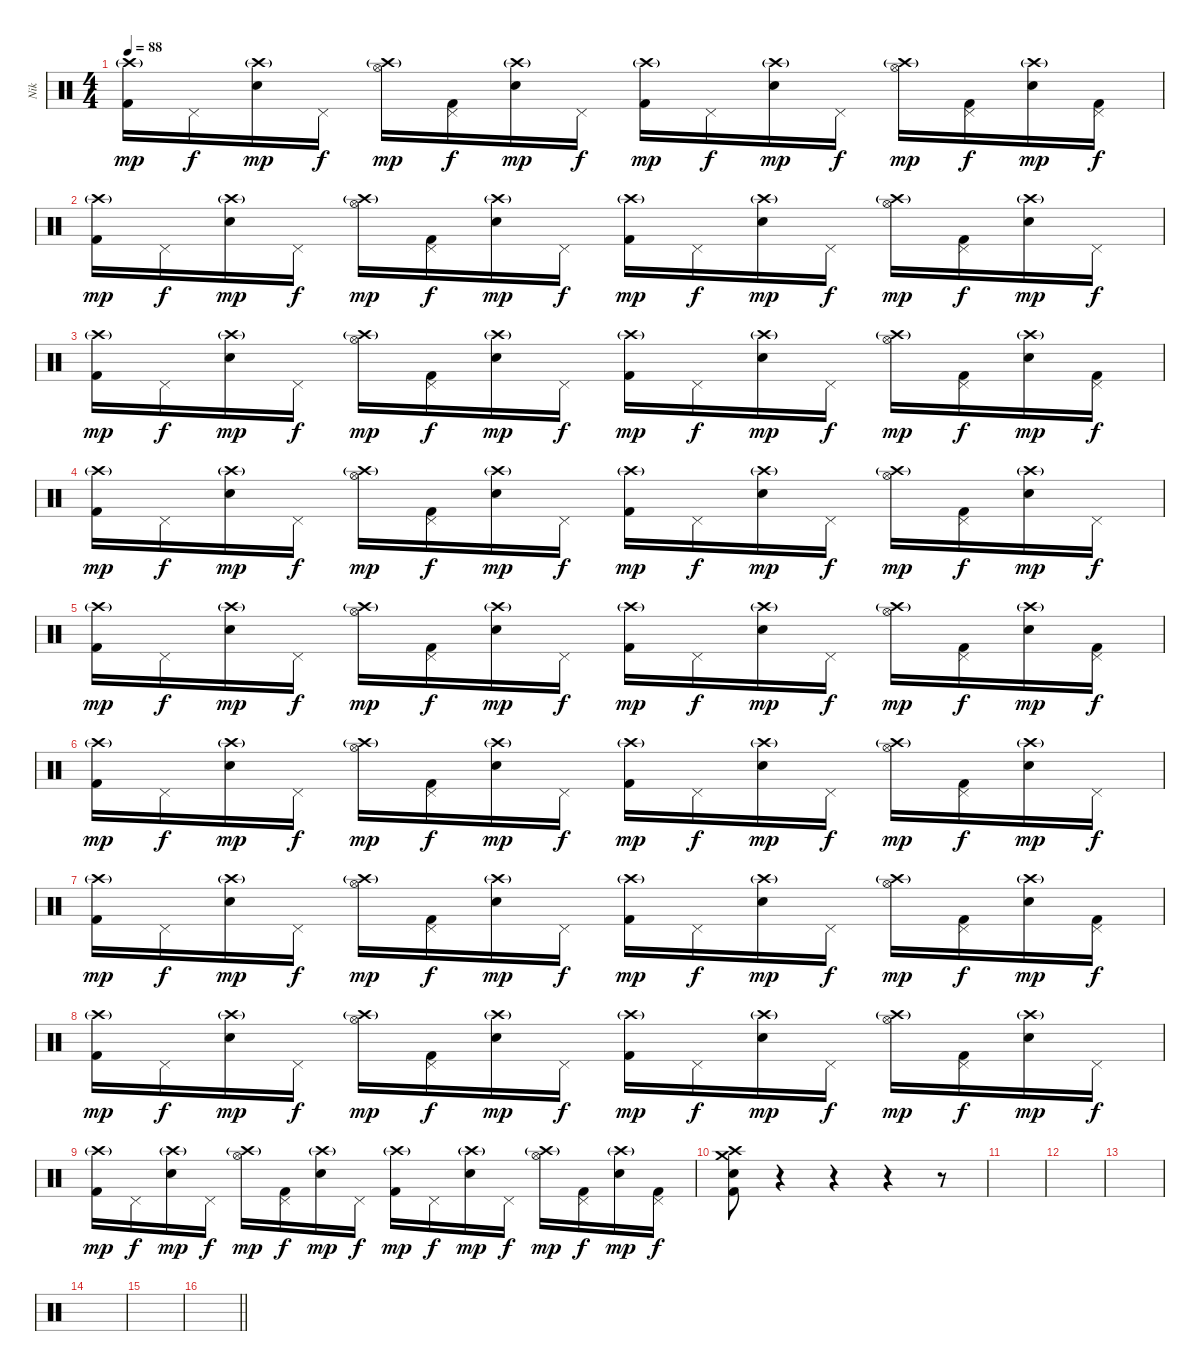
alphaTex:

\track ("Nik" "Nik") {solo instrument percussion}
\staff {score}
\articulation defaults
\ts (4 4)
\tempo 88
\clef neutral
\ks c
("Crash high (hit)"{g} "Kick (hit) 2").16{dy mp} "Pedal Hi-Hat (hit)".16{dy f} ("Crash high (hit)"{g} "Snare (hit) 2").16{dy mp} "Pedal Hi-Hat (hit)".16{dy f} ("Crash high (hit)"{g} "Hi-Hat (open)").16{dy mp} ("Pedal Hi-Hat (hit)" "Kick (hit) 2").16{dy f} ("Crash high (hit)"{g} "Snare (hit) 2").16{dy mp} "Pedal Hi-Hat (hit)".16{dy f} ("Crash high (hit)"{g} "Kick (hit) 2").16{dy mp} "Pedal Hi-Hat (hit)".16{dy f} ("Crash high (hit)"{g} "Snare (hit) 2").16{dy mp} "Pedal Hi-Hat (hit)".16{dy f} ("Crash high (hit)"{g} "Hi-Hat (open)").16{dy mp} ("Pedal Hi-Hat (hit)" "Kick (hit) 2").16{dy f} ("Crash high (hit)"{g} "Snare (hit) 2").16{dy mp} ("Pedal Hi-Hat (hit)" "Kick (hit) 2").16{dy f} |
("Crash high (hit)"{g} "Kick (hit) 2").16{dy mp} "Pedal Hi-Hat (hit)".16{dy f} ("Crash high (hit)"{g} "Snare (hit) 2").16{dy mp} "Pedal Hi-Hat (hit)".16{dy f} ("Crash high (hit)"{g} "Hi-Hat (open)").16{dy mp} ("Pedal Hi-Hat (hit)" "Kick (hit) 2").16{dy f} ("Crash high (hit)"{g} "Snare (hit) 2").16{dy mp} "Pedal Hi-Hat (hit)".16{dy f} ("Crash high (hit)"{g} "Kick (hit) 2").16{dy mp} "Pedal Hi-Hat (hit)".16{dy f} ("Crash high (hit)"{g} "Snare (hit) 2").16{dy mp} "Pedal Hi-Hat (hit)".16{dy f} ("Crash high (hit)"{g} "Hi-Hat (open)").16{dy mp} ("Pedal Hi-Hat (hit)" "Kick (hit) 2").16{dy f} ("Crash high (hit)"{g} "Snare (hit) 2").16{dy mp} "Pedal Hi-Hat (hit)".16{dy f} |
("Crash high (hit)"{g} "Kick (hit) 2").16{dy mp} "Pedal Hi-Hat (hit)".16{dy f} ("Crash high (hit)"{g} "Snare (hit) 2").16{dy mp} "Pedal Hi-Hat (hit)".16{dy f} ("Crash high (hit)"{g} "Hi-Hat (open)").16{dy mp} ("Pedal Hi-Hat (hit)" "Kick (hit) 2").16{dy f} ("Crash high (hit)"{g} "Snare (hit) 2").16{dy mp} "Pedal Hi-Hat (hit)".16{dy f} ("Crash high (hit)"{g} "Kick (hit) 2").16{dy mp} "Pedal Hi-Hat (hit)".16{dy f} ("Crash high (hit)"{g} "Snare (hit) 2").16{dy mp} "Pedal Hi-Hat (hit)".16{dy f} ("Crash high (hit)"{g} "Hi-Hat (open)").16{dy mp} ("Pedal Hi-Hat (hit)" "Kick (hit) 2").16{dy f} ("Crash high (hit)"{g} "Snare (hit) 2").16{dy mp} ("Pedal Hi-Hat (hit)" "Kick (hit) 2").16{dy f} |
("Crash high (hit)"{g} "Kick (hit) 2").16{dy mp} "Pedal Hi-Hat (hit)".16{dy f} ("Crash high (hit)"{g} "Snare (hit) 2").16{dy mp} "Pedal Hi-Hat (hit)".16{dy f} ("Crash high (hit)"{g} "Hi-Hat (open)").16{dy mp} ("Pedal Hi-Hat (hit)" "Kick (hit) 2").16{dy f} ("Crash high (hit)"{g} "Snare (hit) 2").16{dy mp} "Pedal Hi-Hat (hit)".16{dy f} ("Crash high (hit)"{g} "Kick (hit) 2").16{dy mp} "Pedal Hi-Hat (hit)".16{dy f} ("Crash high (hit)"{g} "Snare (hit) 2").16{dy mp} "Pedal Hi-Hat (hit)".16{dy f} ("Crash high (hit)"{g} "Hi-Hat (open)").16{dy mp} ("Pedal Hi-Hat (hit)" "Kick (hit) 2").16{dy f} ("Crash high (hit)"{g} "Snare (hit) 2").16{dy mp} "Pedal Hi-Hat (hit)".16{dy f} |
("Crash high (hit)"{g} "Kick (hit) 2").16{dy mp} "Pedal Hi-Hat (hit)".16{dy f} ("Crash high (hit)"{g} "Snare (hit) 2").16{dy mp} "Pedal Hi-Hat (hit)".16{dy f} ("Crash high (hit)"{g} "Hi-Hat (open)").16{dy mp} ("Pedal Hi-Hat (hit)" "Kick (hit) 2").16{dy f} ("Crash high (hit)"{g} "Snare (hit) 2").16{dy mp} "Pedal Hi-Hat (hit)".16{dy f} ("Crash high (hit)"{g} "Kick (hit) 2").16{dy mp} "Pedal Hi-Hat (hit)".16{dy f} ("Crash high (hit)"{g} "Snare (hit) 2").16{dy mp} "Pedal Hi-Hat (hit)".16{dy f} ("Crash high (hit)"{g} "Hi-Hat (open)").16{dy mp} ("Pedal Hi-Hat (hit)" "Kick (hit) 2").16{dy f} ("Crash high (hit)"{g} "Snare (hit) 2").16{dy mp} ("Pedal Hi-Hat (hit)" "Kick (hit) 2").16{dy f} |
("Crash high (hit)"{g} "Kick (hit) 2").16{dy mp} "Pedal Hi-Hat (hit)".16{dy f} ("Crash high (hit)"{g} "Snare (hit) 2").16{dy mp} "Pedal Hi-Hat (hit)".16{dy f} ("Crash high (hit)"{g} "Hi-Hat (open)").16{dy mp} ("Pedal Hi-Hat (hit)" "Kick (hit) 2").16{dy f} ("Crash high (hit)"{g} "Snare (hit) 2").16{dy mp} "Pedal Hi-Hat (hit)".16{dy f} ("Crash high (hit)"{g} "Kick (hit) 2").16{dy mp} "Pedal Hi-Hat (hit)".16{dy f} ("Crash high (hit)"{g} "Snare (hit) 2").16{dy mp} "Pedal Hi-Hat (hit)".16{dy f} ("Crash high (hit)"{g} "Hi-Hat (open)").16{dy mp} ("Pedal Hi-Hat (hit)" "Kick (hit) 2").16{dy f} ("Crash high (hit)"{g} "Snare (hit) 2").16{dy mp} "Pedal Hi-Hat (hit)".16{dy f} |
("Crash high (hit)"{g} "Kick (hit) 2").16{dy mp} "Pedal Hi-Hat (hit)".16{dy f} ("Crash high (hit)"{g} "Snare (hit) 2").16{dy mp} "Pedal Hi-Hat (hit)".16{dy f} ("Crash high (hit)"{g} "Hi-Hat (open)").16{dy mp} ("Pedal Hi-Hat (hit)" "Kick (hit) 2").16{dy f} ("Crash high (hit)"{g} "Snare (hit) 2").16{dy mp} "Pedal Hi-Hat (hit)".16{dy f} ("Crash high (hit)"{g} "Kick (hit) 2").16{dy mp} "Pedal Hi-Hat (hit)".16{dy f} ("Crash high (hit)"{g} "Snare (hit) 2").16{dy mp} "Pedal Hi-Hat (hit)".16{dy f} ("Crash high (hit)"{g} "Hi-Hat (open)").16{dy mp} ("Pedal Hi-Hat (hit)" "Kick (hit) 2").16{dy f} ("Crash high (hit)"{g} "Snare (hit) 2").16{dy mp} ("Pedal Hi-Hat (hit)" "Kick (hit) 2").16{dy f} |
("Crash high (hit)"{g} "Kick (hit) 2").16{dy mp} "Pedal Hi-Hat (hit)".16{dy f} ("Crash high (hit)"{g} "Snare (hit) 2").16{dy mp} "Pedal Hi-Hat (hit)".16{dy f} ("Crash high (hit)"{g} "Hi-Hat (open)").16{dy mp} ("Pedal Hi-Hat (hit)" "Kick (hit) 2").16{dy f} ("Crash high (hit)"{g} "Snare (hit) 2").16{dy mp} "Pedal Hi-Hat (hit)".16{dy f} ("Crash high (hit)"{g} "Kick (hit) 2").16{dy mp} "Pedal Hi-Hat (hit)".16{dy f} ("Crash high (hit)"{g} "Snare (hit) 2").16{dy mp} "Pedal Hi-Hat (hit)".16{dy f} ("Crash high (hit)"{g} "Hi-Hat (open)").16{dy mp} ("Pedal Hi-Hat (hit)" "Kick (hit) 2").16{dy f} ("Crash high (hit)"{g} "Snare (hit) 2").16{dy mp} "Pedal Hi-Hat (hit)".16{dy f} |
("Crash high (hit)"{g} "Kick (hit) 2").16{dy mp} "Pedal Hi-Hat (hit)".16{dy f} ("Crash high (hit)"{g} "Snare (hit) 2").16{dy mp} "Pedal Hi-Hat (hit)".16{dy f} ("Crash high (hit)"{g} "Hi-Hat (open)").16{dy mp} ("Pedal Hi-Hat (hit)" "Kick (hit) 2").16{dy f} ("Crash high (hit)"{g} "Snare (hit) 2").16{dy mp} "Pedal Hi-Hat (hit)".16{dy f} ("Crash high (hit)"{g} "Kick (hit) 2").16{dy mp} "Pedal Hi-Hat (hit)".16{dy f} ("Crash high (hit)"{g} "Snare (hit) 2").16{dy mp} "Pedal Hi-Hat (hit)".16{dy f} ("Crash high (hit)"{g} "Hi-Hat (open)").16{dy mp} ("Pedal Hi-Hat (hit)" "Kick (hit) 2").16{dy f} ("Crash high (hit)"{g} "Snare (hit) 2").16{dy mp} ("Pedal Hi-Hat (hit)" "Kick (hit) 2").16{dy f} |
("Crash high (hit)" "Crash medium (hit)" "Snare (hit) 2" "Kick (hit) 2").8 r.4 r.4 r.4 r.8 |
|
|
|
|
|
\barLineRight lightlight
